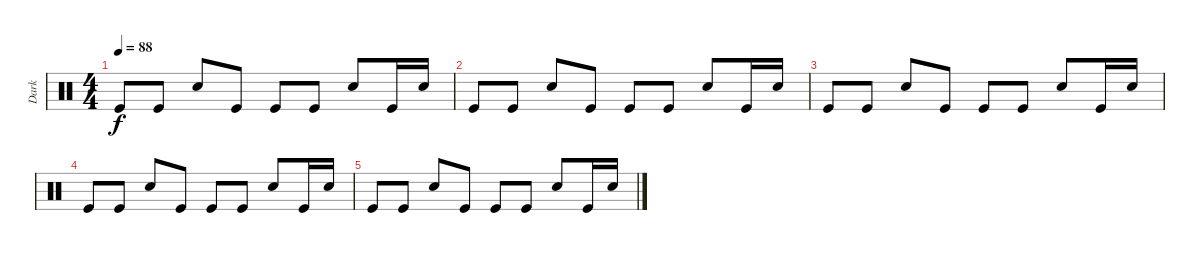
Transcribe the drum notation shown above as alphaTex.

\track ("Dark " "Dark ") {instrument percussion}
\staff {score}
\articulation defaults
\ts (4 4)
\tempo 88
\clef neutral
\ks c "Kick (hit)".8{dy f} "Kick (hit)".8 "Snare (hit) 2".8 "Kick (hit)".8 "Kick (hit)".8 "Kick (hit)".8 "Snare (hit) 2".8 "Kick (hit)".16 "Snare (hit) 2".16
|
"Kick (hit)".8 "Kick (hit)".8 "Snare (hit) 2".8 "Kick (hit)".8 "Kick (hit)".8 "Kick (hit)".8 "Snare (hit) 2".8 "Kick (hit)".16 "Snare (hit) 2".16 |
"Kick (hit)".8 "Kick (hit)".8 "Snare (hit) 2".8 "Kick (hit)".8 "Kick (hit)".8 "Kick (hit)".8 "Snare (hit) 2".8 "Kick (hit)".16 "Snare (hit) 2".16 |
"Kick (hit)".8 "Kick (hit)".8 "Snare (hit) 2".8 "Kick (hit)".8 "Kick (hit)".8 "Kick (hit)".8 "Snare (hit) 2".8 "Kick (hit)".16 "Snare (hit) 2".16 |
"Kick (hit)".8 "Kick (hit)".8 "Snare (hit) 2".8 "Kick (hit)".8 "Kick (hit)".8 "Kick (hit)".8 "Snare (hit) 2".8 "Kick (hit)".16 "Snare (hit) 2".16
